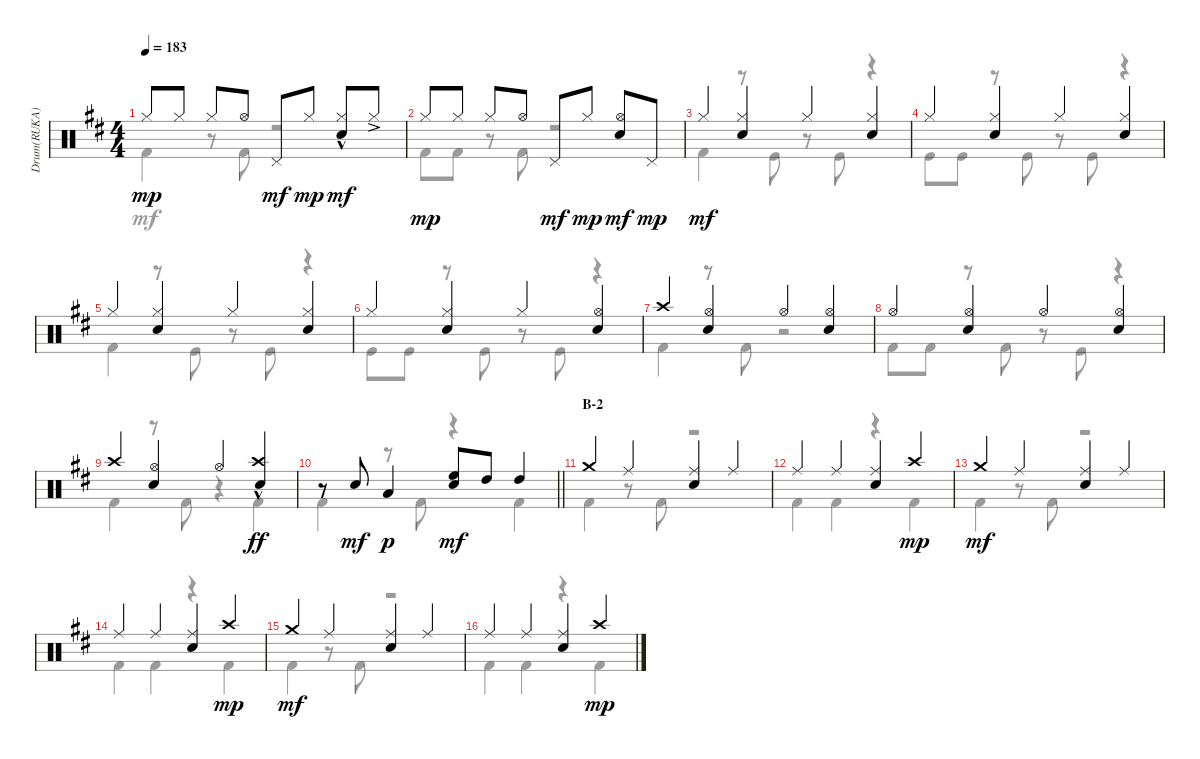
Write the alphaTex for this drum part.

\track ("Drum(RUKA)" "Drum(RUKA)") {instrument percussion}
\staff {score}
\articulation defaults
\voice
\ts (4 4)
\tempo 183
\clef neutral
\ks d "Hi-Hat (closed)".8{dy mp} "Hi-Hat (closed)".8 "Hi-Hat (closed)".8 "Hi-Hat (open)".8 "Pedal Hi-Hat (hit)".8{dy mf} "Hi-Hat (closed)".8{dy mp}
("Hi-Hat (closed)"{hac} "Snare (hit) 2").8{dy mf} "Hi-Hat (closed)"{ac}.8 |
"Hi-Hat (closed)".8{dy mp} "Hi-Hat (closed)".8 "Hi-Hat (closed)".8 "Hi-Hat (open)".8 "Pedal Hi-Hat (hit)".8{dy mf} "Hi-Hat (closed)".8{dy mp} ("Hi-Hat (open)" "Snare (hit) 2").8{dy mf} "Pedal Hi-Hat (hit)".8{dy mp} |
"Hi-Hat (closed)".4{dy mf} ("Hi-Hat (closed)" "Snare (hit) 2").4 "Hi-Hat (closed)".4 ("Hi-Hat (closed)" "Snare (hit) 2").4 |
"Hi-Hat (closed)".4 ("Hi-Hat (closed)" "Snare (hit) 2").4 "Hi-Hat (closed)".4 ("Hi-Hat (closed)" "Snare (hit) 2").4 |
"Hi-Hat (closed)".4 ("Hi-Hat (closed)" "Snare (hit) 2").4 "Hi-Hat (closed)".4 ("Hi-Hat (closed)" "Snare (hit) 2").4 |
"Hi-Hat (closed)".4 ("Hi-Hat (closed)" "Snare (hit) 2").4 "Hi-Hat (closed)".4 ("Hi-Hat (open)" "Snare (hit) 2").4 |
"Crash high (hit)".4 ("Hi-Hat (open)" "Snare (hit) 2").4 "Hi-Hat (open)".4 ("Hi-Hat (open)" "Snare (hit) 2").4 |
"Hi-Hat (open)".4 ("Hi-Hat (open)" "Snare (hit) 2").4 "Hi-Hat (open)".4 ("Hi-Hat (open)" "Snare (hit) 2").4 |
"Crash high (hit)".4 ("Hi-Hat (open)" "Snare (hit) 2").4 "Hi-Hat (open)".4 ("Crash high (hit)" "Snare (hit) 2"{hac}).4{dy ff} |
\barLineRight lightlight
r.8 "Snare (hit) 2".8{dy mf} "Low Tom (hit)".4{dy p} ("Snare (hit) 2" "High Floor Tom (hit)").8{dy mf} "High Tom (hit)".8 "High Tom (hit)".4 |
\section ("" "B-2")
"Crash medium (hit)".4 "Ride (middle)".4 ("Ride (middle)" "Snare (hit) 2").4 "Ride (middle)".4 |
"Ride (middle)".4 "Ride (middle)".4 ("Ride (middle)" "Snare (hit) 2").4 "Crash high (hit)".4{dy mp} |
"Crash medium (hit)".4{dy mf} "Ride (middle)".4 ("Ride (middle)" "Snare (hit) 2").4 "Ride (middle)".4 |
"Ride (middle)".4 "Ride (middle)".4 ("Ride (middle)" "Snare (hit) 2").4 "Crash high (hit)".4{dy mp} |
"Crash medium (hit)".4{dy mf} "Ride (middle)".4 ("Ride (middle)" "Snare (hit) 2").4 "Ride (middle)".4 |
"Ride (middle)".4 "Ride (middle)".4 ("Ride (middle)" "Snare (hit) 2").4 "Crash high (hit)".4{dy mp}
\voice
\clef neutral
\ottava regular
\simile none
\ks d "Kick (hit) 2".4{dy mf}
r.8 "Kick (hit) 2".8 r.2 |
"Kick (hit) 2".8 "Kick (hit) 2".8 r.8 "Kick (hit) 2".8 r.2 |
"Kick (hit) 2".4 r.8 "Kick (hit)".8 r.8 "Kick (hit)".8 r.4 |
"Kick (hit)".8 "Kick (hit)".8 r.8 "Kick (hit)".8 r.8 "Kick (hit)".8 r.4 |
"Kick (hit) 2".4 r.8 "Kick (hit)".8 r.8 "Kick (hit)".8 r.4 |
"Kick (hit)".8 "Kick (hit)".8 r.8 "Kick (hit)".8 r.8 "Kick (hit)".8 r.4 |
"Kick (hit) 2".4 r.8 "Kick (hit) 2".8 r.2 |
"Kick (hit) 2".8 "Kick (hit) 2".8 r.8 "Kick (hit) 2".8 r.8 "Kick (hit)".8 r.4 |
"Kick (hit) 2".4 r.8 "Kick (hit) 2".8 r.4 "Kick (hit) 2".4 |
\barLineRight lightlight "Kick (hit) 2".4
r.8 "Kick (hit) 2".8 r.4 "Kick (hit) 2".4 |
"Kick (hit) 2".4 r.8 "Kick (hit) 2".8 r.2 |
"Kick (hit) 2".4 "Kick (hit) 2".4 r.4 "Kick (hit) 2".4 |
"Kick (hit) 2".4 r.8 "Kick (hit) 2".8 r.2 |
"Kick (hit) 2".4 "Kick (hit) 2".4 r.4 "Kick (hit) 2".4 |
"Kick (hit) 2".4 r.8 "Kick (hit) 2".8 r.2 |
"Kick (hit) 2".4 "Kick (hit) 2".4 r.4 "Kick (hit) 2".4
